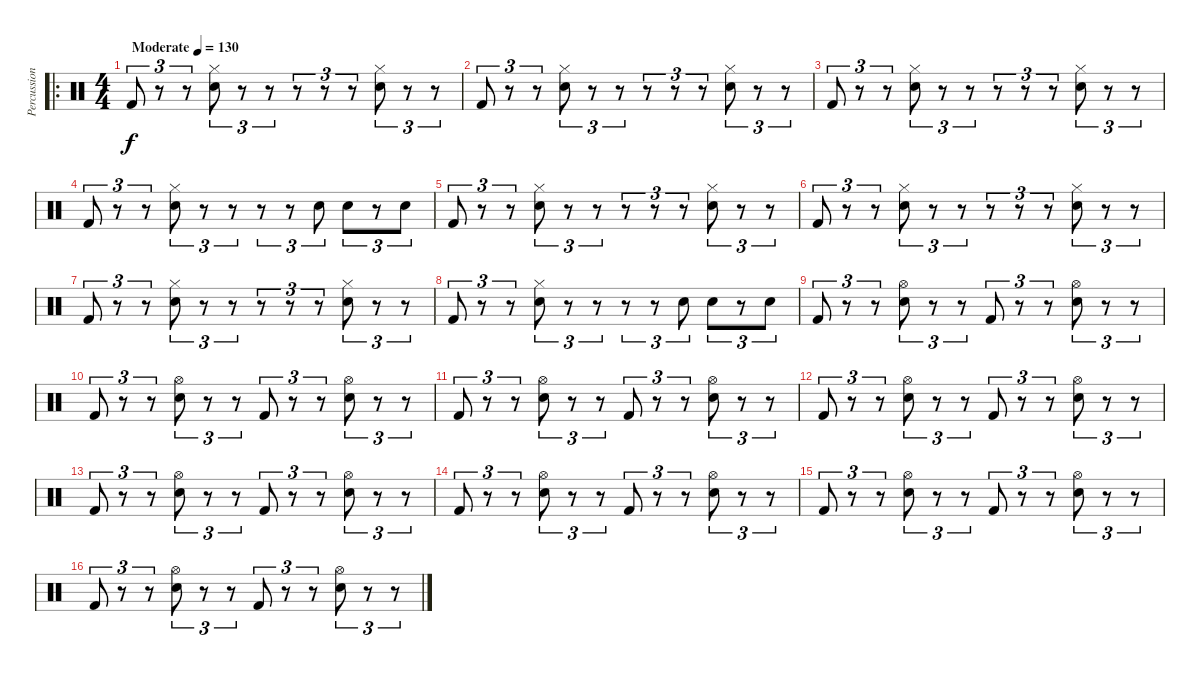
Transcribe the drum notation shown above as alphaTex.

\track ("Percussion" "Percussion") {instrument percussion bank 2}
\staff {score}
\articulation defaults
\ro
\ts (4 4)
\tempo (130 "Moderate")
\clef neutral
\ks c "Kick (hit) 2".8{tu (3 2) dy f}
r.8{tu (3 2)} r.8{tu (3 2)} ("Hi-Hat (closed)" "Snare (hit) 2").8{tu (3 2)} r.8{tu (3 2)} r.8{tu (3 2)} r.8{tu (3 2)} r.8{tu (3 2)} r.8{tu (3 2)} ("Hi-Hat (closed)" "Snare (hit) 2").8{tu (3 2)} r.8{tu (3 2)} r.8{tu (3 2)} |
"Kick (hit) 2".8{tu (3 2)} r.8{tu (3 2)} r.8{tu (3 2)} ("Hi-Hat (closed)" "Snare (hit) 2").8{tu (3 2)} r.8{tu (3 2)} r.8{tu (3 2)} r.8{tu (3 2)} r.8{tu (3 2)} r.8{tu (3 2)} ("Hi-Hat (closed)" "Snare (hit) 2").8{tu (3 2)} r.8{tu (3 2)} r.8{tu (3 2)} |
"Kick (hit) 2".8{tu (3 2)} r.8{tu (3 2)} r.8{tu (3 2)} ("Hi-Hat (closed)" "Snare (hit) 2").8{tu (3 2)} r.8{tu (3 2)} r.8{tu (3 2)} r.8{tu (3 2)} r.8{tu (3 2)} r.8{tu (3 2)} ("Hi-Hat (closed)" "Snare (hit) 2").8{tu (3 2)} r.8{tu (3 2)} r.8{tu (3 2)} |
"Kick (hit) 2".8{tu (3 2)} r.8{tu (3 2)} r.8{tu (3 2)} ("Hi-Hat (closed)" "Snare (hit) 2").8{tu (3 2)} r.8{tu (3 2)} r.8{tu (3 2)} r.8{tu (3 2)} r.8{tu (3 2)} "Snare (hit) 2".8{tu (3 2)} "Snare (hit) 2".8{tu (3 2)} r.8{tu (3 2)} "Snare (hit) 2".8{tu (3 2)} |
"Kick (hit) 2".8{tu (3 2)} r.8{tu (3 2)} r.8{tu (3 2)} ("Hi-Hat (closed)" "Snare (hit) 2").8{tu (3 2)} r.8{tu (3 2)} r.8{tu (3 2)} r.8{tu (3 2)} r.8{tu (3 2)} r.8{tu (3 2)} ("Hi-Hat (closed)" "Snare (hit) 2").8{tu (3 2)} r.8{tu (3 2)} r.8{tu (3 2)} |
"Kick (hit) 2".8{tu (3 2)} r.8{tu (3 2)} r.8{tu (3 2)} ("Hi-Hat (closed)" "Snare (hit) 2").8{tu (3 2)} r.8{tu (3 2)} r.8{tu (3 2)} r.8{tu (3 2)} r.8{tu (3 2)} r.8{tu (3 2)} ("Hi-Hat (closed)" "Snare (hit) 2").8{tu (3 2)} r.8{tu (3 2)} r.8{tu (3 2)} |
"Kick (hit) 2".8{tu (3 2)} r.8{tu (3 2)} r.8{tu (3 2)} ("Hi-Hat (closed)" "Snare (hit) 2").8{tu (3 2)} r.8{tu (3 2)} r.8{tu (3 2)} r.8{tu (3 2)} r.8{tu (3 2)} r.8{tu (3 2)} ("Hi-Hat (closed)" "Snare (hit) 2").8{tu (3 2)} r.8{tu (3 2)} r.8{tu (3 2)} |
"Kick (hit) 2".8{tu (3 2)} r.8{tu (3 2)} r.8{tu (3 2)} ("Hi-Hat (closed)" "Snare (hit) 2").8{tu (3 2)} r.8{tu (3 2)} r.8{tu (3 2)} r.8{tu (3 2)} r.8{tu (3 2)} "Snare (hit) 2".8{tu (3 2)} "Snare (hit) 2".8{tu (3 2)} r.8{tu (3 2)} "Snare (hit) 2".8{tu (3 2)} |
"Kick (hit) 2".8{tu (3 2)} r.8{tu (3 2)} r.8{tu (3 2)} ("Hi-Hat (open)" "Snare (hit) 2").8{tu (3 2)} r.8{tu (3 2)} r.8{tu (3 2)} "Kick (hit) 2".8{tu (3 2)} r.8{tu (3 2)} r.8{tu (3 2)} ("Hi-Hat (open)" "Snare (hit) 2").8{tu (3 2)} r.8{tu (3 2)} r.8{tu (3 2)} |
"Kick (hit) 2".8{tu (3 2)} r.8{tu (3 2)} r.8{tu (3 2)} ("Hi-Hat (open)" "Snare (hit) 2").8{tu (3 2)} r.8{tu (3 2)} r.8{tu (3 2)} "Kick (hit) 2".8{tu (3 2)} r.8{tu (3 2)} r.8{tu (3 2)} ("Hi-Hat (open)" "Snare (hit) 2").8{tu (3 2)} r.8{tu (3 2)} r.8{tu (3 2)} |
"Kick (hit) 2".8{tu (3 2)} r.8{tu (3 2)} r.8{tu (3 2)} ("Hi-Hat (open)" "Snare (hit) 2").8{tu (3 2)} r.8{tu (3 2)} r.8{tu (3 2)} "Kick (hit) 2".8{tu (3 2)} r.8{tu (3 2)} r.8{tu (3 2)} ("Hi-Hat (open)" "Snare (hit) 2").8{tu (3 2)} r.8{tu (3 2)} r.8{tu (3 2)} |
"Kick (hit) 2".8{tu (3 2)} r.8{tu (3 2)} r.8{tu (3 2)} ("Hi-Hat (open)" "Snare (hit) 2").8{tu (3 2)} r.8{tu (3 2)} r.8{tu (3 2)} "Kick (hit) 2".8{tu (3 2)} r.8{tu (3 2)} r.8{tu (3 2)} ("Hi-Hat (open)" "Snare (hit) 2").8{tu (3 2)} r.8{tu (3 2)} r.8{tu (3 2)} |
"Kick (hit) 2".8{tu (3 2)} r.8{tu (3 2)} r.8{tu (3 2)} ("Hi-Hat (open)" "Snare (hit) 2").8{tu (3 2)} r.8{tu (3 2)} r.8{tu (3 2)} "Kick (hit) 2".8{tu (3 2)} r.8{tu (3 2)} r.8{tu (3 2)} ("Hi-Hat (open)" "Snare (hit) 2").8{tu (3 2)} r.8{tu (3 2)} r.8{tu (3 2)} |
"Kick (hit) 2".8{tu (3 2)} r.8{tu (3 2)} r.8{tu (3 2)} ("Hi-Hat (open)" "Snare (hit) 2").8{tu (3 2)} r.8{tu (3 2)} r.8{tu (3 2)} "Kick (hit) 2".8{tu (3 2)} r.8{tu (3 2)} r.8{tu (3 2)} ("Hi-Hat (open)" "Snare (hit) 2").8{tu (3 2)} r.8{tu (3 2)} r.8{tu (3 2)} |
"Kick (hit) 2".8{tu (3 2)} r.8{tu (3 2)} r.8{tu (3 2)} ("Hi-Hat (open)" "Snare (hit) 2").8{tu (3 2)} r.8{tu (3 2)} r.8{tu (3 2)} "Kick (hit) 2".8{tu (3 2)} r.8{tu (3 2)} r.8{tu (3 2)} ("Hi-Hat (open)" "Snare (hit) 2").8{tu (3 2)} r.8{tu (3 2)} r.8{tu (3 2)} |
"Kick (hit) 2".8{tu (3 2)} r.8{tu (3 2)} r.8{tu (3 2)} ("Hi-Hat (open)" "Snare (hit) 2").8{tu (3 2)} r.8{tu (3 2)} r.8{tu (3 2)} "Kick (hit) 2".8{tu (3 2)} r.8{tu (3 2)} r.8{tu (3 2)} ("Hi-Hat (open)" "Snare (hit) 2").8{tu (3 2)} r.8{tu (3 2)} r.8{tu (3 2)}
